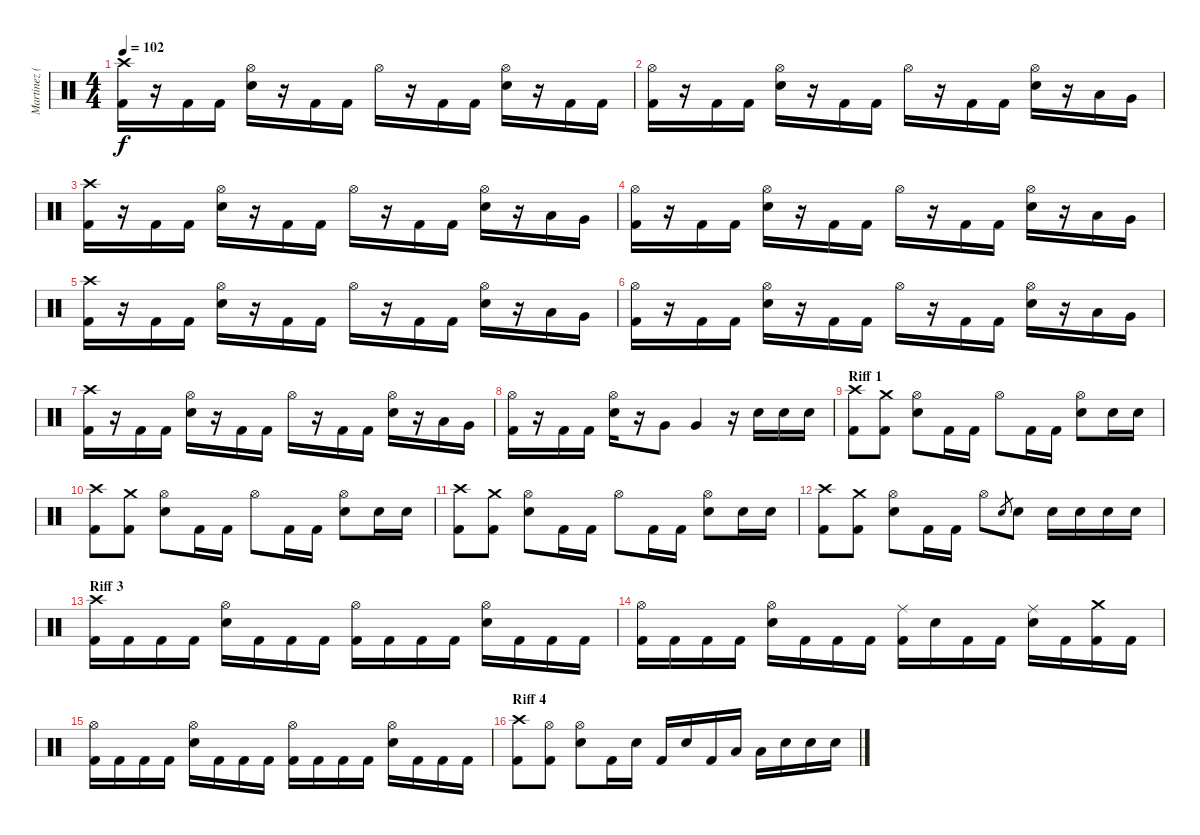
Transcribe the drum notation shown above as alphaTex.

\track ("Martinez (bateria)" "Martinez (") {instrument percussion}
\staff {score}
\articulation defaults
\ts (4 4)
\tempo 102
\clef neutral
\ks c
("Crash high (hit)" "Kick (hit) 2").16{dy f} r.16 "Kick (hit) 2".16 "Kick (hit) 2".16 ("Hi-Hat (open)" "Electric Snare (hit)").16 r.16 "Kick (hit) 2".16 "Kick (hit) 2".16 "Hi-Hat (open)".16 r.16 "Kick (hit) 2".16 "Kick (hit) 2".16 ("Hi-Hat (open)" "Electric Snare (hit)").16 r.16 "Kick (hit) 2".16 "Kick (hit) 2".16 |
("Hi-Hat (open)" "Kick (hit) 2").16 r.16 "Kick (hit) 2".16 "Kick (hit) 2".16 ("Hi-Hat (open)" "Electric Snare (hit)").16 r.16 "Kick (hit) 2".16 "Kick (hit) 2".16 "Hi-Hat (open)".16 r.16 "Kick (hit) 2".16 "Kick (hit) 2".16 ("Hi-Hat (open)" "Electric Snare (hit)").16 r.16 "Low Tom (hit)".16 "Very Low Tom (hit)".16 |
("Crash high (hit)" "Kick (hit) 2").16 r.16 "Kick (hit) 2".16 "Kick (hit) 2".16 ("Hi-Hat (open)" "Electric Snare (hit)").16 r.16 "Kick (hit) 2".16 "Kick (hit) 2".16 "Hi-Hat (open)".16 r.16 "Kick (hit) 2".16 "Kick (hit) 2".16 ("Hi-Hat (open)" "Electric Snare (hit)").16 r.16 "Low Tom (hit)".16 "Very Low Tom (hit)".16 |
("Hi-Hat (open)" "Kick (hit) 2").16 r.16 "Kick (hit) 2".16 "Kick (hit) 2".16 ("Hi-Hat (open)" "Electric Snare (hit)").16 r.16 "Kick (hit) 2".16 "Kick (hit) 2".16 "Hi-Hat (open)".16 r.16 "Kick (hit) 2".16 "Kick (hit) 2".16 ("Hi-Hat (open)" "Electric Snare (hit)").16 r.16 "Low Tom (hit)".16 "Very Low Tom (hit)".16 |
("Crash high (hit)" "Kick (hit) 2").16 r.16 "Kick (hit) 2".16 "Kick (hit) 2".16 ("Hi-Hat (open)" "Electric Snare (hit)").16 r.16 "Kick (hit) 2".16 "Kick (hit) 2".16 "Hi-Hat (open)".16 r.16 "Kick (hit) 2".16 "Kick (hit) 2".16 ("Hi-Hat (open)" "Electric Snare (hit)").16 r.16 "Low Tom (hit)".16 "Very Low Tom (hit)".16 |
("Hi-Hat (open)" "Kick (hit) 2").16 r.16 "Kick (hit) 2".16 "Kick (hit) 2".16 ("Hi-Hat (open)" "Electric Snare (hit)").16 r.16 "Kick (hit) 2".16 "Kick (hit) 2".16 "Hi-Hat (open)".16 r.16 "Kick (hit) 2".16 "Kick (hit) 2".16 ("Hi-Hat (open)" "Electric Snare (hit)").16 r.16 "Low Tom (hit)".16 "Very Low Tom (hit)".16 |
("Crash high (hit)" "Kick (hit) 2").16 r.16 "Kick (hit) 2".16 "Kick (hit) 2".16 ("Hi-Hat (open)" "Electric Snare (hit)").16 r.16 "Kick (hit) 2".16 "Kick (hit) 2".16 "Hi-Hat (open)".16 r.16 "Kick (hit) 2".16 "Kick (hit) 2".16 ("Hi-Hat (open)" "Electric Snare (hit)").16 r.16 "Low Tom (hit)".16 "Very Low Tom (hit)".16 |
("Hi-Hat (open)" "Kick (hit) 2").16 r.16 "Kick (hit) 2".16 "Kick (hit) 2".16 ("Hi-Hat (open)" "Electric Snare (hit)").16 r.16 "Very Low Tom (hit)".8 "Very Low Tom (hit)".4 r.16 "Electric Snare (hit)".16 "Electric Snare (hit)".16 "Electric Snare (hit)".16 |
\section ("" "Riff 1")
("Crash high (hit)" "Kick (hit) 2").8 ("Crash medium (hit)" "Kick (hit) 2").8 ("Hi-Hat (open)" "Electric Snare (hit)").8 "Kick (hit) 2".16 "Kick (hit) 2".16 "Hi-Hat (open)".8 "Kick (hit) 2".16 "Kick (hit) 2".16 ("Hi-Hat (open)" "Electric Snare (hit)").8 "Electric Snare (hit)".16 "Electric Snare (hit)".16 |
("Crash high (hit)" "Kick (hit) 2").8 ("Crash medium (hit)" "Kick (hit) 2").8 ("Hi-Hat (open)" "Electric Snare (hit)").8 "Kick (hit) 2".16 "Kick (hit) 2".16 "Hi-Hat (open)".8 "Kick (hit) 2".16 "Kick (hit) 2".16 ("Hi-Hat (open)" "Electric Snare (hit)").8 "Electric Snare (hit)".16 "Electric Snare (hit)".16 |
("Crash high (hit)" "Kick (hit) 2").8 ("Crash medium (hit)" "Kick (hit) 2").8 ("Hi-Hat (open)" "Electric Snare (hit)").8 "Kick (hit) 2".16 "Kick (hit) 2".16 "Hi-Hat (open)".8 "Kick (hit) 2".16 "Kick (hit) 2".16 ("Hi-Hat (open)" "Electric Snare (hit)").8 "Electric Snare (hit)".16 "Electric Snare (hit)".16 |
("Crash high (hit)" "Kick (hit) 2").8 ("Crash medium (hit)" "Kick (hit) 2").8 ("Hi-Hat (open)" "Electric Snare (hit)").8 "Kick (hit) 2".16 "Kick (hit) 2".16 "Hi-Hat (open)".8 "Electric Snare (hit)".8{gr} "Electric Snare (hit)".8 "Snare (hit) 2".16 "Snare (hit) 2".16 "Snare (hit) 2".16 "Snare (hit) 2".16 |
\section ("" "Riff 3")
("Crash high (hit)" "Kick (hit) 2").16 "Kick (hit) 2".16 "Kick (hit) 2".16 "Kick (hit) 2".16 ("Hi-Hat (open)" "Electric Snare (hit)").16 "Kick (hit) 2".16 "Kick (hit) 2".16 "Kick (hit) 2".16 ("Hi-Hat (open)" "Kick (hit) 2").16 "Kick (hit) 2".16 "Kick (hit) 2".16 "Kick (hit) 2".16 ("Hi-Hat (open)" "Electric Snare (hit)").16 "Kick (hit) 2".16 "Kick (hit) 2".16 "Kick (hit) 2".16 |
("Hi-Hat (open)" "Kick (hit) 2").16 "Kick (hit) 2".16 "Kick (hit) 2".16 "Kick (hit) 2".16 ("Hi-Hat (open)" "Electric Snare (hit)").16 "Kick (hit) 2".16 "Kick (hit) 2".16 "Kick (hit) 2".16 ("Ride (middle)" "Kick (hit) 2").16 "Electric Snare (hit)".16 "Kick (hit) 2".16 "Kick (hit) 2".16 ("Ride (middle)" "Electric Snare (hit)").16 "Kick (hit) 2".16 ("Crash medium (hit)" "Kick (hit) 2").16 "Kick (hit) 2".16 |
("Hi-Hat (open)" "Kick (hit) 2").16 "Kick (hit) 2".16 "Kick (hit) 2".16 "Kick (hit) 2".16 ("Hi-Hat (open)" "Electric Snare (hit)").16 "Kick (hit) 2".16 "Kick (hit) 2".16 "Kick (hit) 2".16 ("Hi-Hat (open)" "Kick (hit) 2").16 "Kick (hit) 2".16 "Kick (hit) 2".16 "Kick (hit) 2".16 ("Hi-Hat (open)" "Electric Snare (hit)").16 "Kick (hit) 2".16 "Kick (hit) 2".16 "Kick (hit) 2".16 |
\section ("" "Riff 4")
("Crash high (hit)" "Kick (hit) 2").8 ("Hi-Hat (open)" "Kick (hit) 2").8 ("Hi-Hat (open)" "Electric Snare (hit)").8 "Kick (hit) 2".16 "Electric Snare (hit)".16 "Kick (hit) 2".16 "Electric Snare (hit)".16 "Kick (hit) 2".16 "Low Tom (hit)".16 "Low Tom (hit)".16 "Electric Snare (hit)".16 "Electric Snare (hit)".16 "Electric Snare (hit)".16
